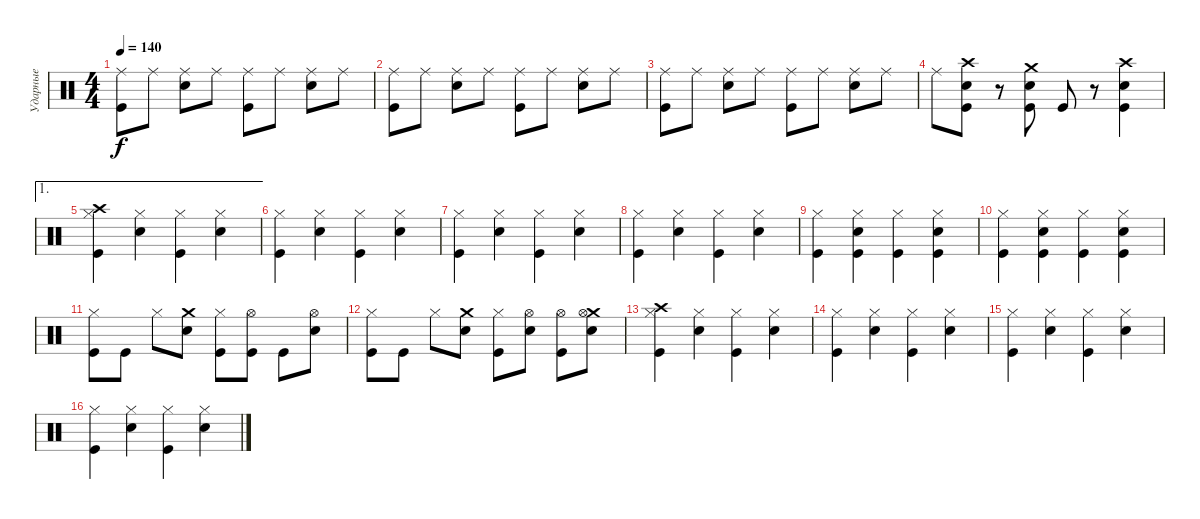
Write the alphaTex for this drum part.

\track ("Ударные" "Ударные") {instrument percussion}
\staff {score}
\articulation defaults
\ts (4 4)
\tempo 140
\clef neutral
\ks c
("Ride (middle)" "Kick (hit)").8{dy f} "Ride (middle)".8 ("Ride (middle)" "Electric Snare (hit)").8 "Ride (middle)".8 ("Ride (middle)" "Kick (hit)").8 "Ride (middle)".8 ("Ride (middle)" "Electric Snare (hit)").8 "Ride (middle)".8 |
("Ride (middle)" "Kick (hit)").8 "Ride (middle)".8 ("Ride (middle)" "Electric Snare (hit)").8 "Ride (middle)".8 ("Ride (middle)" "Kick (hit)").8 "Ride (middle)".8 ("Ride (middle)" "Electric Snare (hit)").8 "Ride (middle)".8 |
("Ride (middle)" "Kick (hit)").8 "Ride (middle)".8 ("Ride (middle)" "Electric Snare (hit)").8 "Ride (middle)".8 ("Ride (middle)" "Kick (hit)").8 "Ride (middle)".8 ("Ride (middle)" "Electric Snare (hit)").8 "Ride (middle)".8 |
"Ride (middle)".8 ("Crash high (hit)" "Kick (hit)" "Electric Snare (hit)").8 r.8 ("Crash medium (hit)" "Kick (hit)" "Electric Snare (hit)").8 "Kick (hit)".8 r.8 ("Crash high (hit)" "Kick (hit)" "Electric Snare (hit)").4 |
\ae 1
("Crash high (hit)" "Hi-Hat (closed)" "Kick (hit)").4 ("Hi-Hat (closed)" "Electric Snare (hit)").4 ("Hi-Hat (closed)" "Kick (hit)").4 ("Hi-Hat (closed)" "Electric Snare (hit)").4 |
("Hi-Hat (closed)" "Kick (hit)").4 ("Hi-Hat (closed)" "Electric Snare (hit)").4 ("Hi-Hat (closed)" "Kick (hit)").4 ("Hi-Hat (closed)" "Electric Snare (hit)").4 |
("Hi-Hat (closed)" "Kick (hit)").4 ("Hi-Hat (closed)" "Electric Snare (hit)").4 ("Hi-Hat (closed)" "Kick (hit)").4 ("Hi-Hat (closed)" "Electric Snare (hit)").4 |
("Hi-Hat (closed)" "Kick (hit)").4 ("Hi-Hat (closed)" "Electric Snare (hit)").4 ("Hi-Hat (closed)" "Kick (hit)").4 ("Hi-Hat (closed)" "Electric Snare (hit)").4 |
("Hi-Hat (closed)" "Kick (hit)").4 ("Kick (hit)" "Hi-Hat (closed)" "Electric Snare (hit)").4 ("Hi-Hat (closed)" "Kick (hit)").4 ("Kick (hit)" "Hi-Hat (closed)" "Electric Snare (hit)").4 |
("Hi-Hat (closed)" "Kick (hit)").4 ("Kick (hit)" "Hi-Hat (closed)" "Electric Snare (hit)").4 ("Hi-Hat (closed)" "Kick (hit)").4 ("Kick (hit)" "Hi-Hat (closed)" "Electric Snare (hit)").4 |
("Hi-Hat (closed)" "Kick (hit)").8 "Kick (hit)".8 "Hi-Hat (closed)".8 ("Crash medium (hit)" "Electric Snare (hit)").8 ("Hi-Hat (closed)" "Kick (hit)").8 ("Kick (hit)" "Hi-Hat (open)").8 "Kick (hit)".8 ("Electric Snare (hit)" "Hi-Hat (open)").8 |
("Hi-Hat (closed)" "Kick (hit)").8 "Kick (hit)".8 "Hi-Hat (closed)".8 ("Crash medium (hit)" "Electric Snare (hit)").8 ("Hi-Hat (closed)" "Kick (hit)").8 ("Electric Snare (hit)" "Hi-Hat (open)").8 ("Kick (hit)" "Hi-Hat (open)").8 ("Crash medium (hit)" "Electric Snare (hit)" "Hi-Hat (open)").8 |
("Crash high (hit)" "Hi-Hat (closed)" "Kick (hit)").4 ("Hi-Hat (closed)" "Electric Snare (hit)").4 ("Hi-Hat (closed)" "Kick (hit)").4 ("Hi-Hat (closed)" "Electric Snare (hit)").4 |
("Hi-Hat (closed)" "Kick (hit)").4 ("Hi-Hat (closed)" "Electric Snare (hit)").4 ("Hi-Hat (closed)" "Kick (hit)").4 ("Hi-Hat (closed)" "Electric Snare (hit)").4 |
("Hi-Hat (closed)" "Kick (hit)").4 ("Hi-Hat (closed)" "Electric Snare (hit)").4 ("Hi-Hat (closed)" "Kick (hit)").4 ("Hi-Hat (closed)" "Electric Snare (hit)").4 |
("Hi-Hat (closed)" "Kick (hit)").4 ("Hi-Hat (closed)" "Electric Snare (hit)").4 ("Hi-Hat (closed)" "Kick (hit)").4 ("Hi-Hat (closed)" "Electric Snare (hit)").4
